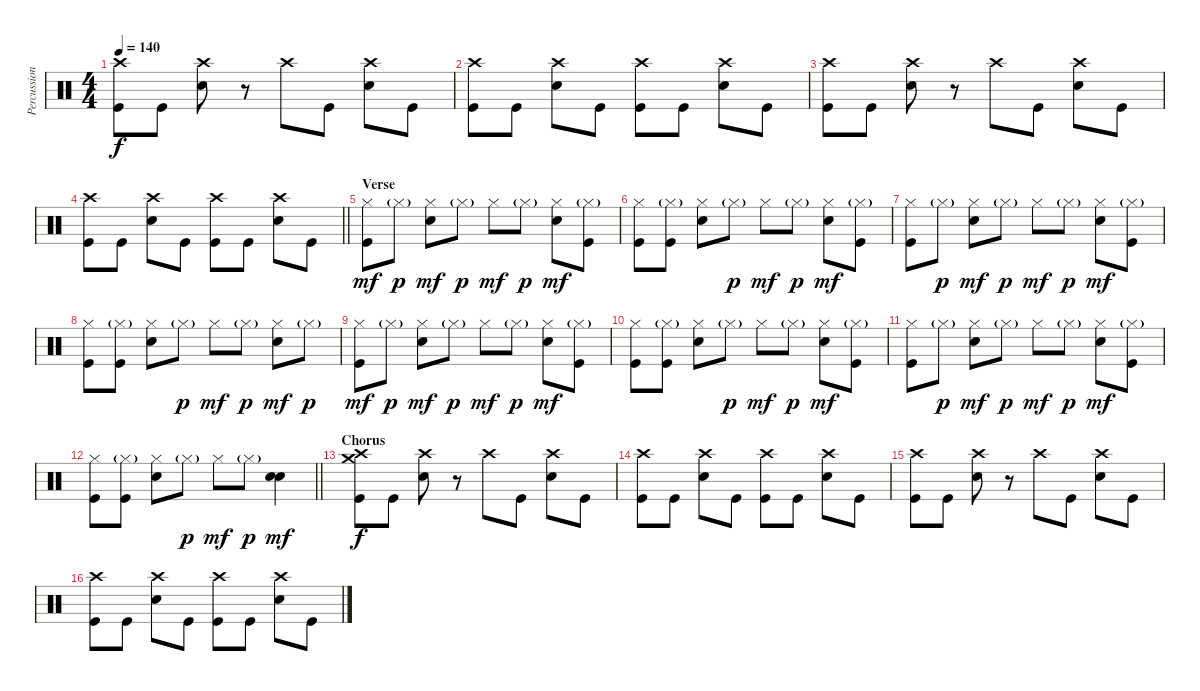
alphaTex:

\track ("Percussion" "Percussion") {instrument percussion}
\staff {score}
\articulation defaults
\ts (4 4)
\tempo 140
\clef neutral
\ks c
("Crash high (hit)" "Kick (hit)").8{dy f} "Kick (hit)".8 ("Crash high (hit)" "Snare (hit) 2").8 r.8 "Crash high (hit)".8 "Kick (hit)".8 ("Crash high (hit)" "Snare (hit) 2").8 "Kick (hit)".8 |
("Crash high (hit)" "Kick (hit)").8 "Kick (hit)".8 ("Crash high (hit)" "Snare (hit) 2").8 "Kick (hit)".8 ("Crash high (hit)" "Kick (hit)").8 "Kick (hit)".8 ("Crash high (hit)" "Snare (hit) 2").8 "Kick (hit)".8 |
("Crash high (hit)" "Kick (hit)").8 "Kick (hit)".8 ("Crash high (hit)" "Snare (hit) 2").8 r.8 "Crash high (hit)".8 "Kick (hit)".8 ("Crash high (hit)" "Snare (hit) 2").8 "Kick (hit)".8 |
\barLineRight lightlight
("Crash high (hit)" "Kick (hit)").8 "Kick (hit)".8 ("Crash high (hit)" "Snare (hit) 2").8 "Kick (hit)".8 ("Crash high (hit)" "Kick (hit)").8 "Kick (hit)".8 ("Crash high (hit)" "Snare (hit) 2").8 "Kick (hit)".8 |
\section ("" "Verse")
("Hi-Hat (closed)" "Kick (hit)").8{dy mf} "Hi-Hat (closed)"{g}.8{dy p} ("Hi-Hat (closed)" "Snare (hit) 2").8{dy mf} "Hi-Hat (closed)"{g}.8{dy p} "Hi-Hat (closed)".8{dy mf} "Hi-Hat (closed)"{g}.8{dy p} ("Hi-Hat (closed)" "Snare (hit) 2").8{dy mf} ("Hi-Hat (closed)"{g} "Kick (hit)").8 |
("Hi-Hat (closed)" "Kick (hit)").8 ("Hi-Hat (closed)"{g} "Kick (hit)").8 ("Hi-Hat (closed)" "Snare (hit) 2").8 "Hi-Hat (closed)"{g}.8{dy p} "Hi-Hat (closed)".8{dy mf} "Hi-Hat (closed)"{g}.8{dy p} ("Hi-Hat (closed)" "Snare (hit) 2").8{dy mf} ("Hi-Hat (closed)"{g} "Kick (hit)").8 |
("Hi-Hat (closed)" "Kick (hit)").8 "Hi-Hat (closed)"{g}.8{dy p} ("Hi-Hat (closed)" "Snare (hit) 2").8{dy mf} "Hi-Hat (closed)"{g}.8{dy p} "Hi-Hat (closed)".8{dy mf} "Hi-Hat (closed)"{g}.8{dy p} ("Hi-Hat (closed)" "Snare (hit) 2").8{dy mf} ("Hi-Hat (closed)"{g} "Kick (hit)").8 |
("Hi-Hat (closed)" "Kick (hit)").8 ("Hi-Hat (closed)"{g} "Kick (hit)").8 ("Hi-Hat (closed)" "Snare (hit) 2").8 "Hi-Hat (closed)"{g}.8{dy p} "Hi-Hat (closed)".8{dy mf} "Hi-Hat (closed)"{g}.8{dy p} ("Hi-Hat (closed)" "Snare (hit) 2").8{dy mf} "Hi-Hat (closed)"{g}.8{dy p} |
("Hi-Hat (closed)" "Kick (hit)").8{dy mf} "Hi-Hat (closed)"{g}.8{dy p} ("Hi-Hat (closed)" "Snare (hit) 2").8{dy mf} "Hi-Hat (closed)"{g}.8{dy p} "Hi-Hat (closed)".8{dy mf} "Hi-Hat (closed)"{g}.8{dy p} ("Hi-Hat (closed)" "Snare (hit) 2").8{dy mf} ("Hi-Hat (closed)"{g} "Kick (hit)").8 |
("Hi-Hat (closed)" "Kick (hit)").8 ("Hi-Hat (closed)"{g} "Kick (hit)").8 ("Hi-Hat (closed)" "Snare (hit) 2").8 "Hi-Hat (closed)"{g}.8{dy p} "Hi-Hat (closed)".8{dy mf} "Hi-Hat (closed)"{g}.8{dy p} ("Hi-Hat (closed)" "Snare (hit) 2").8{dy mf} ("Hi-Hat (closed)"{g} "Kick (hit)").8 |
("Hi-Hat (closed)" "Kick (hit)").8 "Hi-Hat (closed)"{g}.8{dy p} ("Hi-Hat (closed)" "Snare (hit) 2").8{dy mf} "Hi-Hat (closed)"{g}.8{dy p} "Hi-Hat (closed)".8{dy mf} "Hi-Hat (closed)"{g}.8{dy p} ("Hi-Hat (closed)" "Snare (hit) 2").8{dy mf} ("Hi-Hat (closed)"{g} "Kick (hit)").8 |
\barLineRight lightlight
("Hi-Hat (closed)" "Kick (hit)").8 ("Hi-Hat (closed)"{g} "Kick (hit)").8 ("Hi-Hat (closed)" "Snare (hit) 2").8 "Hi-Hat (closed)"{g}.8{dy p} "Hi-Hat (closed)".8{dy mf} "Hi-Hat (closed)"{g}.8{dy p} ("Snare (hit) 2" "Snare (hit) 2").4{dy mf} |
\section ("" "Chorus")
("Crash medium (hit)" "Crash high (hit)" "Kick (hit)").8{dy f} "Kick (hit)".8 ("Crash high (hit)" "Snare (hit) 2").8 r.8 "Crash high (hit)".8 "Kick (hit)".8 ("Crash high (hit)" "Snare (hit) 2").8 "Kick (hit)".8 |
("Crash high (hit)" "Kick (hit)").8 "Kick (hit)".8 ("Crash high (hit)" "Snare (hit) 2").8 "Kick (hit)".8 ("Crash high (hit)" "Kick (hit)").8 "Kick (hit)".8 ("Crash high (hit)" "Snare (hit) 2").8 "Kick (hit)".8 |
("Crash high (hit)" "Kick (hit)").8 "Kick (hit)".8 ("Crash high (hit)" "Snare (hit) 2").8 r.8 "Crash high (hit)".8 "Kick (hit)".8 ("Crash high (hit)" "Snare (hit) 2").8 "Kick (hit)".8 |
("Crash high (hit)" "Kick (hit)").8 "Kick (hit)".8 ("Crash high (hit)" "Snare (hit) 2").8 "Kick (hit)".8 ("Crash high (hit)" "Kick (hit)").8 "Kick (hit)".8 ("Crash high (hit)" "Snare (hit) 2").8 "Kick (hit)".8
